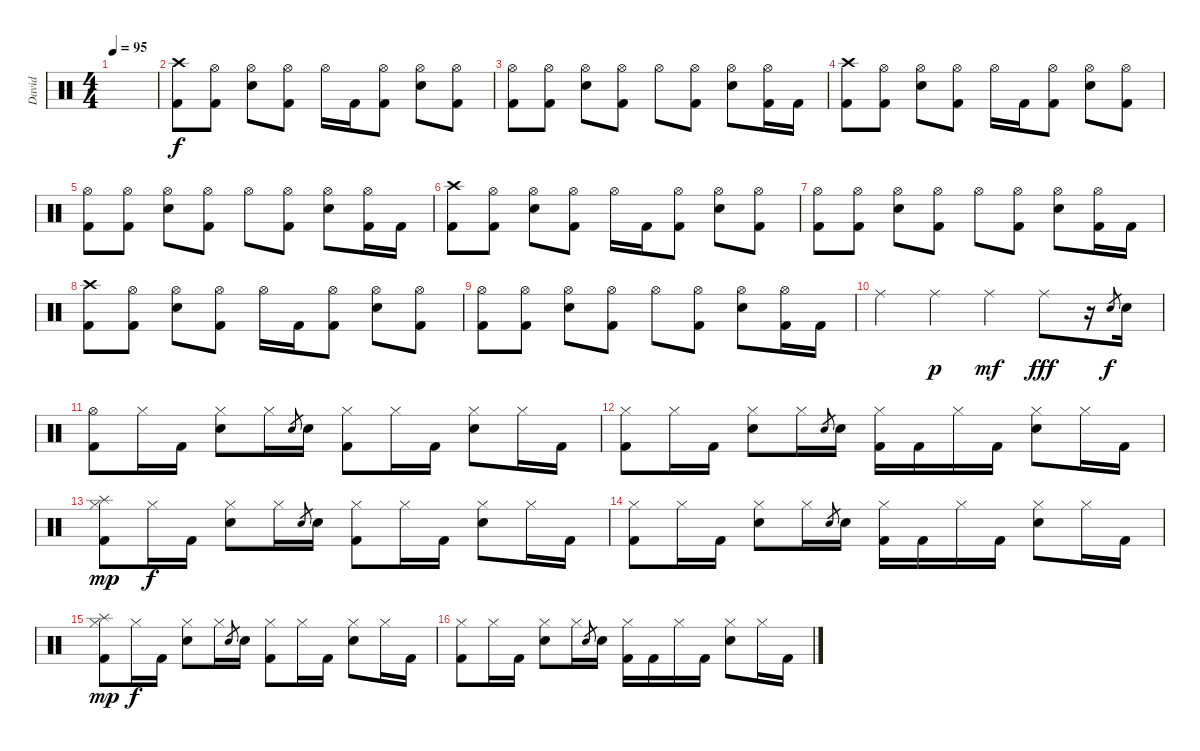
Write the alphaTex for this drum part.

\track ("David" "David") {instrument percussion}
\staff {score}
\articulation defaults
\ts (4 4)
\tempo 95
\clef neutral
\ks c
|
("Crash high (hit)" "Kick (hit) 2").8 ("Hi-Hat (open)" "Kick (hit) 2").8 ("Hi-Hat (open)" "Electric Snare (hit)").8 ("Hi-Hat (open)" "Kick (hit) 2").8 "Hi-Hat (open)".16 "Kick (hit) 2".16 ("Hi-Hat (open)" "Kick (hit) 2").8 ("Hi-Hat (open)" "Electric Snare (hit)").8 ("Hi-Hat (open)" "Kick (hit) 2").8 |
("Hi-Hat (open)" "Kick (hit) 2").8 ("Hi-Hat (open)" "Kick (hit) 2").8 ("Hi-Hat (open)" "Electric Snare (hit)").8 ("Hi-Hat (open)" "Kick (hit) 2").8 "Hi-Hat (open)".8 ("Hi-Hat (open)" "Kick (hit) 2").8 ("Hi-Hat (open)" "Electric Snare (hit)").8 ("Hi-Hat (open)" "Kick (hit) 2").16 "Kick (hit) 2".16 |
("Crash high (hit)" "Kick (hit) 2").8 ("Hi-Hat (open)" "Kick (hit) 2").8 ("Hi-Hat (open)" "Electric Snare (hit)").8 ("Hi-Hat (open)" "Kick (hit) 2").8 "Hi-Hat (open)".16 "Kick (hit) 2".16 ("Hi-Hat (open)" "Kick (hit) 2").8 ("Hi-Hat (open)" "Electric Snare (hit)").8 ("Hi-Hat (open)" "Kick (hit) 2").8 |
("Hi-Hat (open)" "Kick (hit) 2").8 ("Hi-Hat (open)" "Kick (hit) 2").8 ("Hi-Hat (open)" "Electric Snare (hit)").8 ("Hi-Hat (open)" "Kick (hit) 2").8 "Hi-Hat (open)".8 ("Hi-Hat (open)" "Kick (hit) 2").8 ("Hi-Hat (open)" "Electric Snare (hit)").8 ("Hi-Hat (open)" "Kick (hit) 2").16 "Kick (hit) 2".16 |
("Crash high (hit)" "Kick (hit) 2").8 ("Hi-Hat (open)" "Kick (hit) 2").8 ("Hi-Hat (open)" "Electric Snare (hit)").8 ("Hi-Hat (open)" "Kick (hit) 2").8 "Hi-Hat (open)".16 "Kick (hit) 2".16 ("Hi-Hat (open)" "Kick (hit) 2").8 ("Hi-Hat (open)" "Electric Snare (hit)").8 ("Hi-Hat (open)" "Kick (hit) 2").8 |
("Hi-Hat (open)" "Kick (hit) 2").8 ("Hi-Hat (open)" "Kick (hit) 2").8 ("Hi-Hat (open)" "Electric Snare (hit)").8 ("Hi-Hat (open)" "Kick (hit) 2").8 "Hi-Hat (open)".8 ("Hi-Hat (open)" "Kick (hit) 2").8 ("Hi-Hat (open)" "Electric Snare (hit)").8 ("Hi-Hat (open)" "Kick (hit) 2").16 "Kick (hit) 2".16 |
("Crash high (hit)" "Kick (hit) 2").8 ("Hi-Hat (open)" "Kick (hit) 2").8 ("Hi-Hat (open)" "Electric Snare (hit)").8 ("Hi-Hat (open)" "Kick (hit) 2").8 "Hi-Hat (open)".16 "Kick (hit) 2".16 ("Hi-Hat (open)" "Kick (hit) 2").8 ("Hi-Hat (open)" "Electric Snare (hit)").8 ("Hi-Hat (open)" "Kick (hit) 2").8 |
("Hi-Hat (open)" "Kick (hit) 2").8 ("Hi-Hat (open)" "Kick (hit) 2").8 ("Hi-Hat (open)" "Electric Snare (hit)").8 ("Hi-Hat (open)" "Kick (hit) 2").8 "Hi-Hat (open)".8 ("Hi-Hat (open)" "Kick (hit) 2").8 ("Hi-Hat (open)" "Electric Snare (hit)").8 ("Hi-Hat (open)" "Kick (hit) 2").16 "Kick (hit) 2".16 |
"Ride (middle)".4 "Ride (middle)".4{dy p} "Ride (middle)".4{dy mf} "Ride (middle)".8{dy fff} r.16 "Electric Snare (hit)".8{gr dy f} "Electric Snare (hit)".16 |
("Hi-Hat (open)" "Kick (hit) 2").8 "Hi-Hat (closed)".16 "Kick (hit) 2".16 ("Hi-Hat (closed)" "Electric Snare (hit)").8 "Hi-Hat (closed)".16 "Electric Snare (hit)".8{gr} "Electric Snare (hit)".16 ("Hi-Hat (closed)" "Kick (hit) 2").8 "Hi-Hat (closed)".16 "Kick (hit) 2".16 ("Hi-Hat (closed)" "Electric Snare (hit)").8 "Hi-Hat (closed)".16 "Kick (hit) 2".16 |
("Hi-Hat (closed)" "Kick (hit) 2").8 "Hi-Hat (closed)".16 "Kick (hit) 2".16 ("Hi-Hat (closed)" "Electric Snare (hit)").8 "Hi-Hat (closed)".16 "Electric Snare (hit)".8{gr} "Electric Snare (hit)".16 ("Hi-Hat (closed)" "Kick (hit) 2").16 "Kick (hit) 2".16 "Hi-Hat (closed)".16 "Kick (hit) 2".16 ("Hi-Hat (closed)" "Electric Snare (hit)").8 "Hi-Hat (closed)".16 "Kick (hit) 2".16 |
("Hi-Hat (closed)" "Splash (hit)" "Kick (hit) 2").8{dy mp} "Hi-Hat (closed)".16{dy f} "Kick (hit) 2".16 ("Hi-Hat (closed)" "Electric Snare (hit)").8 "Hi-Hat (closed)".16 "Electric Snare (hit)".8{gr} "Electric Snare (hit)".16 ("Hi-Hat (closed)" "Kick (hit) 2").8 "Hi-Hat (closed)".16 "Kick (hit) 2".16 ("Hi-Hat (closed)" "Electric Snare (hit)").8 "Hi-Hat (closed)".16 "Kick (hit) 2".16 |
("Hi-Hat (closed)" "Kick (hit) 2").8 "Hi-Hat (closed)".16 "Kick (hit) 2".16 ("Hi-Hat (closed)" "Electric Snare (hit)").8 "Hi-Hat (closed)".16 "Electric Snare (hit)".8{gr} "Electric Snare (hit)".16 ("Hi-Hat (closed)" "Kick (hit) 2").16 "Kick (hit) 2".16 "Hi-Hat (closed)".16 "Kick (hit) 2".16 ("Hi-Hat (closed)" "Electric Snare (hit)").8 "Hi-Hat (closed)".16 "Kick (hit) 2".16 |
("Hi-Hat (closed)" "Splash (hit)" "Kick (hit) 2").8{dy mp} "Hi-Hat (closed)".16{dy f} "Kick (hit) 2".16 ("Hi-Hat (closed)" "Electric Snare (hit)").8 "Hi-Hat (closed)".16 "Electric Snare (hit)".8{gr} "Electric Snare (hit)".16 ("Hi-Hat (closed)" "Kick (hit) 2").8 "Hi-Hat (closed)".16 "Kick (hit) 2".16 ("Hi-Hat (closed)" "Electric Snare (hit)").8 "Hi-Hat (closed)".16 "Kick (hit) 2".16 |
("Hi-Hat (closed)" "Kick (hit) 2").8 "Hi-Hat (closed)".16 "Kick (hit) 2".16 ("Hi-Hat (closed)" "Electric Snare (hit)").8 "Hi-Hat (closed)".16 "Electric Snare (hit)".8{gr} "Electric Snare (hit)".16 ("Hi-Hat (closed)" "Kick (hit) 2").16 "Kick (hit) 2".16 "Hi-Hat (closed)".16 "Kick (hit) 2".16 ("Hi-Hat (closed)" "Electric Snare (hit)").8 "Hi-Hat (closed)".16 "Kick (hit) 2".16
